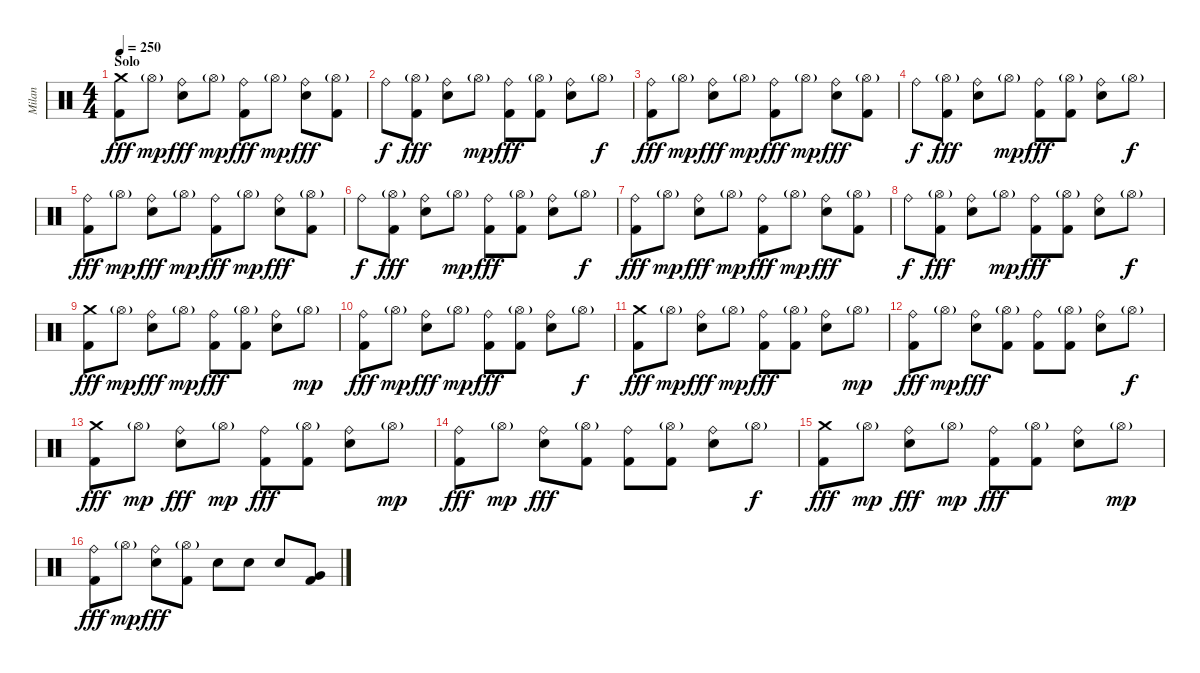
\track ("Milan" "Milan") {instrument percussion}
\staff {score}
\articulation defaults
\ts (4 4)
\section ("" "Solo")
\tempo 250
\clef neutral
\ks c
("Crash medium (hit)" "Kick (hit) 2").8{dy fff} "Hi-Hat (open)"{g}.8{dy mp} ("Ride (bell)" "Snare (hit) 2").8{dy fff} "Hi-Hat (open)"{g}.8{dy mp} ("Ride (bell)" "Kick (hit) 2").8{dy fff} "Hi-Hat (open)"{g}.8{dy mp} ("Ride (bell)" "Snare (hit) 2").8{dy fff} ("Hi-Hat (open)"{g} "Kick (hit) 2").8 |
"Ride (bell)".8{dy f} ("Hi-Hat (open)"{g} "Kick (hit) 2").8{dy fff} ("Ride (bell)" "Snare (hit) 2").8 "Hi-Hat (open)"{g}.8{dy mp} ("Ride (bell)" "Kick (hit) 2").8{dy fff} ("Hi-Hat (open)"{g} "Kick (hit) 2").8 ("Ride (bell)" "Snare (hit) 2").8 "Hi-Hat (open)"{g}.8{dy f} |
("Ride (bell)" "Kick (hit) 2").8{dy fff} "Hi-Hat (open)"{g}.8{dy mp} ("Ride (bell)" "Snare (hit) 2").8{dy fff} "Hi-Hat (open)"{g}.8{dy mp} ("Ride (bell)" "Kick (hit) 2").8{dy fff} "Hi-Hat (open)"{g}.8{dy mp} ("Ride (bell)" "Snare (hit) 2").8{dy fff} ("Hi-Hat (open)"{g} "Kick (hit) 2").8 |
"Ride (bell)".8{dy f} ("Hi-Hat (open)"{g} "Kick (hit) 2").8{dy fff} ("Ride (bell)" "Snare (hit) 2").8 "Hi-Hat (open)"{g}.8{dy mp} ("Ride (bell)" "Kick (hit) 2").8{dy fff} ("Hi-Hat (open)"{g} "Kick (hit) 2").8 ("Ride (bell)" "Snare (hit) 2").8 "Hi-Hat (open)"{g}.8{dy f} |
("Ride (bell)" "Kick (hit) 2").8{dy fff} "Hi-Hat (open)"{g}.8{dy mp} ("Ride (bell)" "Snare (hit) 2").8{dy fff} "Hi-Hat (open)"{g}.8{dy mp} ("Ride (bell)" "Kick (hit) 2").8{dy fff} "Hi-Hat (open)"{g}.8{dy mp} ("Ride (bell)" "Snare (hit) 2").8{dy fff} ("Hi-Hat (open)"{g} "Kick (hit) 2").8 |
"Ride (bell)".8{dy f} ("Hi-Hat (open)"{g} "Kick (hit) 2").8{dy fff} ("Ride (bell)" "Snare (hit) 2").8 "Hi-Hat (open)"{g}.8{dy mp} ("Ride (bell)" "Kick (hit) 2").8{dy fff} ("Hi-Hat (open)"{g} "Kick (hit) 2").8 ("Ride (bell)" "Snare (hit) 2").8 "Hi-Hat (open)"{g}.8{dy f} |
("Ride (bell)" "Kick (hit) 2").8{dy fff} "Hi-Hat (open)"{g}.8{dy mp} ("Ride (bell)" "Snare (hit) 2").8{dy fff} "Hi-Hat (open)"{g}.8{dy mp} ("Ride (bell)" "Kick (hit) 2").8{dy fff} "Hi-Hat (open)"{g}.8{dy mp} ("Ride (bell)" "Snare (hit) 2").8{dy fff} ("Hi-Hat (open)"{g} "Kick (hit) 2").8 |
"Ride (bell)".8{dy f} ("Hi-Hat (open)"{g} "Kick (hit) 2").8{dy fff} ("Ride (bell)" "Snare (hit) 2").8 "Hi-Hat (open)"{g}.8{dy mp} ("Ride (bell)" "Kick (hit) 2").8{dy fff} ("Hi-Hat (open)"{g} "Kick (hit) 2").8 ("Ride (bell)" "Snare (hit) 2").8 "Hi-Hat (open)"{g}.8{dy f} |
("Crash medium (hit)" "Kick (hit) 2").8{dy fff} "Hi-Hat (open)"{g}.8{dy mp} ("Ride (bell)" "Snare (hit) 2").8{dy fff} "Hi-Hat (open)"{g}.8{dy mp} ("Ride (bell)" "Kick (hit) 2").8{dy fff} ("Hi-Hat (open)"{g} "Kick (hit) 2").8 ("Ride (bell)" "Snare (hit) 2").8 "Hi-Hat (open)"{g}.8{dy mp} |
("Ride (bell)" "Kick (hit) 2").8{dy fff} "Hi-Hat (open)"{g}.8{dy mp} ("Ride (bell)" "Snare (hit) 2").8{dy fff} "Hi-Hat (open)"{g}.8{dy mp} ("Ride (bell)" "Kick (hit) 2").8{dy fff} ("Hi-Hat (open)"{g} "Kick (hit) 2").8 ("Ride (bell)" "Snare (hit) 2").8 "Hi-Hat (open)"{g}.8{dy f} |
("Crash medium (hit)" "Kick (hit) 2").8{dy fff} "Hi-Hat (open)"{g}.8{dy mp} ("Ride (bell)" "Snare (hit) 2").8{dy fff} "Hi-Hat (open)"{g}.8{dy mp} ("Ride (bell)" "Kick (hit) 2").8{dy fff} ("Hi-Hat (open)"{g} "Kick (hit) 2").8 ("Ride (bell)" "Snare (hit) 2").8 "Hi-Hat (open)"{g}.8{dy mp} |
("Ride (bell)" "Kick (hit) 2").8{dy fff} "Hi-Hat (open)"{g}.8{dy mp} ("Ride (bell)" "Snare (hit) 2").8{dy fff} ("Hi-Hat (open)"{g} "Kick (hit) 2").8 ("Ride (bell)" "Kick (hit) 2").8 ("Hi-Hat (open)"{g} "Kick (hit) 2").8 ("Ride (bell)" "Snare (hit) 2").8 "Hi-Hat (open)"{g}.8{dy f} |
("Crash medium (hit)" "Kick (hit) 2").8{dy fff} "Hi-Hat (open)"{g}.8{dy mp} ("Ride (bell)" "Snare (hit) 2").8{dy fff} "Hi-Hat (open)"{g}.8{dy mp} ("Ride (bell)" "Kick (hit) 2").8{dy fff} ("Hi-Hat (open)"{g} "Kick (hit) 2").8 ("Ride (bell)" "Snare (hit) 2").8 "Hi-Hat (open)"{g}.8{dy mp} |
("Ride (bell)" "Kick (hit) 2").8{dy fff} "Hi-Hat (open)"{g}.8{dy mp} ("Ride (bell)" "Snare (hit) 2").8{dy fff} ("Hi-Hat (open)"{g} "Kick (hit) 2").8 ("Ride (bell)" "Kick (hit) 2").8 ("Hi-Hat (open)"{g} "Kick (hit) 2").8 ("Ride (bell)" "Snare (hit) 2").8 "Hi-Hat (open)"{g}.8{dy f} |
("Crash medium (hit)" "Kick (hit) 2").8{dy fff} "Hi-Hat (open)"{g}.8{dy mp} ("Ride (bell)" "Snare (hit) 2").8{dy fff} "Hi-Hat (open)"{g}.8{dy mp} ("Ride (bell)" "Kick (hit) 2").8{dy fff} ("Hi-Hat (open)"{g} "Kick (hit) 2").8 ("Ride (bell)" "Snare (hit) 2").8 "Hi-Hat (open)"{g}.8{dy mp} |
("Ride (bell)" "Kick (hit) 2").8{dy fff} "Hi-Hat (open)"{g}.8{dy mp} ("Ride (bell)" "Snare (hit) 2").8{dy fff} ("Hi-Hat (open)"{g} "Kick (hit) 2").8 "Snare (hit) 2".8 "Snare (hit) 2".8 "Snare (hit) 2".8 ("Very Low Tom (hit)" "Kick (hit) 2").8
